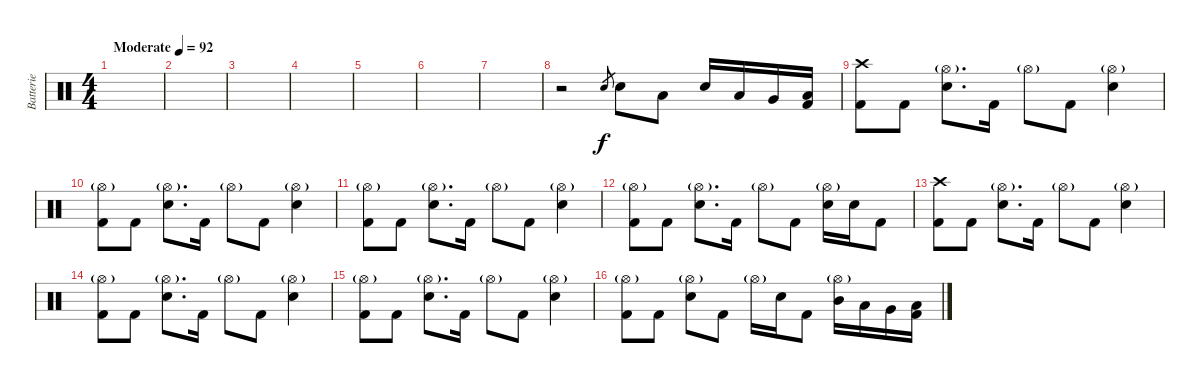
\track ("Batterie" "Batterie") {instrument percussion}
\staff {score}
\articulation defaults
\ts (4 4)
\tempo (92 "Moderate")
\clef neutral
\ks c
|
|
|
|
|
|
|
r.2 "Electric Snare (hit)".8{gr} "Electric Snare (hit)".8 "Low Tom (hit)".8 "Electric Snare (hit)".16 "Low Tom (hit)".16 "Very Low Tom (hit)".16 ("Low Floor Tom (hit)" "Kick (hit) 2").16 |
("Crash high (hit)" "Kick (hit) 2").8 "Kick (hit) 2".8 ("Hi-Hat (open)"{g} "Electric Snare (hit)").8{d} "Kick (hit) 2".16 "Hi-Hat (open)"{g}.8 "Kick (hit) 2".8 ("Hi-Hat (open)"{g} "Electric Snare (hit)").4 |
("Hi-Hat (open)"{g} "Kick (hit) 2").8 "Kick (hit) 2".8 ("Hi-Hat (open)"{g} "Electric Snare (hit)").8{d} "Kick (hit) 2".16 "Hi-Hat (open)"{g}.8 "Kick (hit) 2".8 ("Hi-Hat (open)"{g} "Electric Snare (hit)").4 |
("Hi-Hat (open)"{g} "Kick (hit) 2").8 "Kick (hit) 2".8 ("Hi-Hat (open)"{g} "Electric Snare (hit)").8{d} "Kick (hit) 2".16 "Hi-Hat (open)"{g}.8 "Kick (hit) 2".8 ("Hi-Hat (open)"{g} "Electric Snare (hit)").4 |
("Hi-Hat (open)"{g} "Kick (hit) 2").8 "Kick (hit) 2".8 ("Hi-Hat (open)"{g} "Electric Snare (hit)").8{d} "Kick (hit) 2".16 "Hi-Hat (open)"{g}.8 "Kick (hit) 2".8 ("Hi-Hat (open)"{g} "Electric Snare (hit)").16 "Electric Snare (hit)".16 "Kick (hit) 2".8 |
("Crash high (hit)" "Kick (hit) 2").8 "Kick (hit) 2".8 ("Hi-Hat (open)"{g} "Electric Snare (hit)").8{d} "Kick (hit) 2".16 "Hi-Hat (open)"{g}.8 "Kick (hit) 2".8 ("Hi-Hat (open)"{g} "Electric Snare (hit)").4 |
("Hi-Hat (open)"{g} "Kick (hit) 2").8 "Kick (hit) 2".8 ("Hi-Hat (open)"{g} "Electric Snare (hit)").8{d} "Kick (hit) 2".16 "Hi-Hat (open)"{g}.8 "Kick (hit) 2".8 ("Hi-Hat (open)"{g} "Electric Snare (hit)").4 |
("Hi-Hat (open)"{g} "Kick (hit) 2").8 "Kick (hit) 2".8 ("Hi-Hat (open)"{g} "Electric Snare (hit)").8{d} "Kick (hit) 2".16 "Hi-Hat (open)"{g}.8 "Kick (hit) 2".8 ("Hi-Hat (open)"{g} "Electric Snare (hit)").4 |
("Hi-Hat (open)"{g} "Kick (hit) 2").8 "Kick (hit) 2".8 ("Hi-Hat (open)"{g} "Electric Snare (hit)").8 "Kick (hit) 2".8 "Hi-Hat (open)"{g}.16 "Electric Snare (hit)".16 "Kick (hit) 2".8 ("Hi-Hat (open)"{g} "Mid Tom (hit)").16 "Low Tom (hit)".16 "Very Low Tom (hit)".16 ("Low Floor Tom (hit)" "Kick (hit) 2").16
